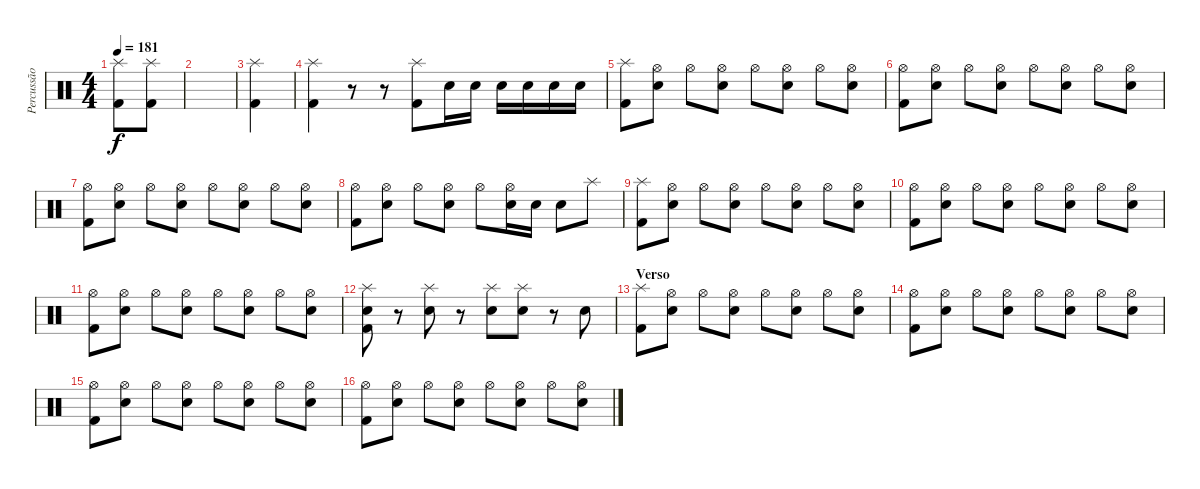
\track ("Percussão" "Percussão") {instrument percussion}
\staff {score}
\articulation defaults
\ts (4 4)
\tempo 181
\clef neutral
\ks c
("Splash (hit)" "Kick (hit) 2").8{dy f} ("Splash (hit)" "Kick (hit) 2").8 |
|
("Splash (hit)" "Kick (hit) 2").4 |
("Splash (hit)" "Kick (hit) 2").4 r.8 r.8 ("Splash (hit)" "Kick (hit) 2").8 "Snare (hit) 2".16 "Snare (hit) 2".16 "Snare (hit) 2".16 "Snare (hit) 2".16 "Snare (hit) 2".16 "Snare (hit) 2".16 |
("Splash (hit)" "Kick (hit) 2").8 ("Hi-Hat (open)" "Snare (hit) 2").8 "Hi-Hat (open)".8 ("Hi-Hat (open)" "Snare (hit) 2").8 "Hi-Hat (open)".8 ("Hi-Hat (open)" "Snare (hit) 2").8 "Hi-Hat (open)".8 ("Hi-Hat (open)" "Snare (hit) 2").8 |
("Hi-Hat (open)" "Kick (hit) 2").8 ("Hi-Hat (open)" "Snare (hit) 2").8 "Hi-Hat (open)".8 ("Hi-Hat (open)" "Snare (hit) 2").8 "Hi-Hat (open)".8 ("Hi-Hat (open)" "Snare (hit) 2").8 "Hi-Hat (open)".8 ("Hi-Hat (open)" "Snare (hit) 2").8 |
("Hi-Hat (open)" "Kick (hit) 2").8 ("Hi-Hat (open)" "Snare (hit) 2").8 "Hi-Hat (open)".8 ("Hi-Hat (open)" "Snare (hit) 2").8 "Hi-Hat (open)".8 ("Hi-Hat (open)" "Snare (hit) 2").8 "Hi-Hat (open)".8 ("Hi-Hat (open)" "Snare (hit) 2").8 |
("Hi-Hat (open)" "Kick (hit) 2").8 ("Hi-Hat (open)" "Snare (hit) 2").8 "Hi-Hat (open)".8 ("Hi-Hat (open)" "Snare (hit) 2").8 "Hi-Hat (open)".8 ("Hi-Hat (open)" "Snare (hit) 2").16 "Snare (hit) 2".16 "Snare (hit) 2".8 "Splash (hit)".8 |
("Splash (hit)" "Kick (hit) 2").8 ("Hi-Hat (open)" "Snare (hit) 2").8 "Hi-Hat (open)".8 ("Hi-Hat (open)" "Snare (hit) 2").8 "Hi-Hat (open)".8 ("Hi-Hat (open)" "Snare (hit) 2").8 "Hi-Hat (open)".8 ("Hi-Hat (open)" "Snare (hit) 2").8 |
("Hi-Hat (open)" "Kick (hit) 2").8 ("Hi-Hat (open)" "Snare (hit) 2").8 "Hi-Hat (open)".8 ("Hi-Hat (open)" "Snare (hit) 2").8 "Hi-Hat (open)".8 ("Hi-Hat (open)" "Snare (hit) 2").8 "Hi-Hat (open)".8 ("Hi-Hat (open)" "Snare (hit) 2").8 |
("Hi-Hat (open)" "Kick (hit) 2").8 ("Hi-Hat (open)" "Snare (hit) 2").8 "Hi-Hat (open)".8 ("Hi-Hat (open)" "Snare (hit) 2").8 "Hi-Hat (open)".8 ("Hi-Hat (open)" "Snare (hit) 2").8 "Hi-Hat (open)".8 ("Hi-Hat (open)" "Snare (hit) 2").8 |
("Splash (hit)" "Snare (hit) 2" "Kick (hit) 2").8 r.8 ("Splash (hit)" "Snare (hit) 2").8 r.8 ("Splash (hit)" "Snare (hit) 2").8 ("Splash (hit)" "Snare (hit) 2").8 r.8 "Snare (hit) 2".8 |
\section ("" "Verso")
("Splash (hit)" "Kick (hit) 2").8 ("Hi-Hat (open)" "Snare (hit) 2").8 "Hi-Hat (open)".8 ("Hi-Hat (open)" "Snare (hit) 2").8 "Hi-Hat (open)".8 ("Hi-Hat (open)" "Snare (hit) 2").8 "Hi-Hat (open)".8 ("Hi-Hat (open)" "Snare (hit) 2").8 |
("Hi-Hat (open)" "Kick (hit) 2").8 ("Hi-Hat (open)" "Snare (hit) 2").8 "Hi-Hat (open)".8 ("Hi-Hat (open)" "Snare (hit) 2").8 "Hi-Hat (open)".8 ("Hi-Hat (open)" "Snare (hit) 2").8 "Hi-Hat (open)".8 ("Hi-Hat (open)" "Snare (hit) 2").8 |
("Hi-Hat (open)" "Kick (hit) 2").8 ("Hi-Hat (open)" "Snare (hit) 2").8 "Hi-Hat (open)".8 ("Hi-Hat (open)" "Snare (hit) 2").8 "Hi-Hat (open)".8 ("Hi-Hat (open)" "Snare (hit) 2").8 "Hi-Hat (open)".8 ("Hi-Hat (open)" "Snare (hit) 2").8 |
("Hi-Hat (open)" "Kick (hit) 2").8 ("Hi-Hat (open)" "Snare (hit) 2").8 "Hi-Hat (open)".8 ("Hi-Hat (open)" "Snare (hit) 2").8 "Hi-Hat (open)".8 ("Hi-Hat (open)" "Snare (hit) 2").8 "Hi-Hat (open)".8 ("Hi-Hat (open)" "Snare (hit) 2").8
